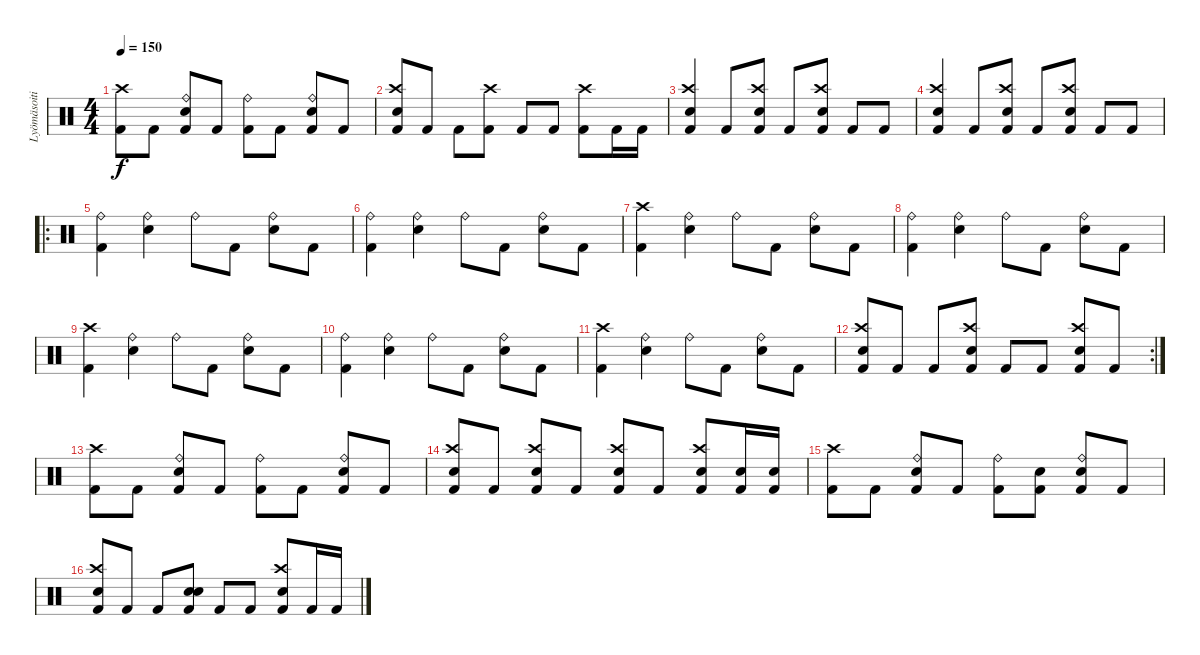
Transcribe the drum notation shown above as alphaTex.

\track ("Lyömäsoitin" "Lyömäsoiti") {instrument percussion}
\staff {score}
\articulation defaults
\ts (4 4)
\tempo 150
\clef neutral
\ks c
("Kick (hit) 2" "Crash high (hit)").8{dy f} "Kick (hit) 2".8 ("Kick (hit) 2" "Ride (bell)" "Electric Snare (hit)").8 "Kick (hit) 2".8 ("Kick (hit) 2" "Ride (bell)").8 "Kick (hit) 2".8 ("Kick (hit) 2" "Ride (bell)" "Electric Snare (hit)").8 "Kick (hit) 2".8 |
("Kick (hit) 2" "Crash high (hit)" "Electric Snare (hit)").8 "Kick (hit) 2".8 "Kick (hit) 2".8 ("Kick (hit) 2" "Crash high (hit)").8 "Kick (hit) 2".8 "Kick (hit) 2".8 ("Kick (hit) 2" "Crash high (hit)").8 "Kick (hit) 2".16 "Kick (hit) 2".16 |
("Kick (hit) 2" "Crash high (hit)" "Electric Snare (hit)").4 "Kick (hit) 2".8 ("Kick (hit) 2" "Crash high (hit)" "Electric Snare (hit)").8 "Kick (hit) 2".8 ("Kick (hit) 2" "Crash high (hit)" "Electric Snare (hit)").8 "Kick (hit) 2".8 "Kick (hit) 2".8 |
("Kick (hit) 2" "Crash high (hit)" "Electric Snare (hit)").4 "Kick (hit) 2".8 ("Kick (hit) 2" "Crash high (hit)" "Electric Snare (hit)").8 "Kick (hit) 2".8 ("Kick (hit) 2" "Crash high (hit)" "Electric Snare (hit)").8 "Kick (hit) 2".8 "Kick (hit) 2".8 |
\ro
("Kick (hit) 2" "Ride (bell)").4 ("Ride (bell)" "Electric Snare (hit)").4 "Ride (bell)".8 "Kick (hit) 2".8 ("Ride (bell)" "Electric Snare (hit)").8 "Kick (hit) 2".8 |
("Kick (hit) 2" "Ride (bell)").4 ("Ride (bell)" "Electric Snare (hit)").4 "Ride (bell)".8 "Kick (hit) 2".8 ("Ride (bell)" "Electric Snare (hit)").8 "Kick (hit) 2".8 |
("Kick (hit) 2" "Crash high (hit)").4 ("Ride (bell)" "Electric Snare (hit)").4 "Ride (bell)".8 "Kick (hit) 2".8 ("Ride (bell)" "Electric Snare (hit)").8 "Kick (hit) 2".8 |
("Kick (hit) 2" "Ride (bell)").4 ("Ride (bell)" "Electric Snare (hit)").4 "Ride (bell)".8 "Kick (hit) 2".8 ("Ride (bell)" "Electric Snare (hit)").8 "Kick (hit) 2".8 |
("Kick (hit) 2" "Crash high (hit)").4 ("Ride (bell)" "Electric Snare (hit)").4 "Ride (bell)".8 "Kick (hit) 2".8 ("Ride (bell)" "Electric Snare (hit)").8 "Kick (hit) 2".8 |
("Kick (hit) 2" "Ride (bell)").4 ("Ride (bell)" "Electric Snare (hit)").4 "Ride (bell)".8 "Kick (hit) 2".8 ("Ride (bell)" "Electric Snare (hit)").8 "Kick (hit) 2".8 |
("Kick (hit) 2" "Crash high (hit)").4 ("Ride (bell)" "Electric Snare (hit)").4 "Ride (bell)".8 "Kick (hit) 2".8 ("Ride (bell)" "Electric Snare (hit)").8 "Kick (hit) 2".8 |
\rc 2
("Kick (hit) 2" "Crash high (hit)" "Electric Snare (hit)").8 "Kick (hit) 2".8 "Kick (hit) 2".8 ("Kick (hit) 2" "Crash high (hit)" "Electric Snare (hit)").8 "Kick (hit) 2".8 "Kick (hit) 2".8 ("Kick (hit) 2" "Crash high (hit)" "Electric Snare (hit)").8 "Kick (hit) 2".8 |
("Kick (hit) 2" "Crash high (hit)").8 "Kick (hit) 2".8 ("Kick (hit) 2" "Ride (bell)" "Electric Snare (hit)").8 "Kick (hit) 2".8 ("Kick (hit) 2" "Ride (bell)").8 "Kick (hit) 2".8 ("Kick (hit) 2" "Ride (bell)" "Electric Snare (hit)").8 "Kick (hit) 2".8 |
("Kick (hit) 2" "Crash high (hit)" "Electric Snare (hit)").8 "Kick (hit) 2".8 ("Kick (hit) 2" "Crash high (hit)" "Electric Snare (hit)").8 "Kick (hit) 2".8 ("Kick (hit) 2" "Crash high (hit)" "Electric Snare (hit)").8 "Kick (hit) 2".8 ("Kick (hit) 2" "Crash high (hit)" "Electric Snare (hit)").8 ("Kick (hit) 2" "Electric Snare (hit)").16 ("Kick (hit) 2" "Electric Snare (hit)").16 |
("Kick (hit) 2" "Crash high (hit)").8 "Kick (hit) 2".8 ("Kick (hit) 2" "Ride (bell)" "Electric Snare (hit)").8 "Kick (hit) 2".8 ("Kick (hit) 2" "Ride (bell)").8 ("Kick (hit) 2" "Snare (hit)").8 ("Kick (hit) 2" "Ride (bell)" "Electric Snare (hit)").8 "Kick (hit) 2".8 |
("Kick (hit) 2" "Crash high (hit)" "Electric Snare (hit)").8 "Kick (hit) 2".8 "Kick (hit) 2".8 ("Kick (hit) 2" "Electric Snare (hit)" "Electric Snare (hit)").8 "Kick (hit) 2".8 "Kick (hit) 2".8 ("Kick (hit) 2" "Crash high (hit)" "Electric Snare (hit)").8 "Kick (hit) 2".16 "Kick (hit) 2".16
